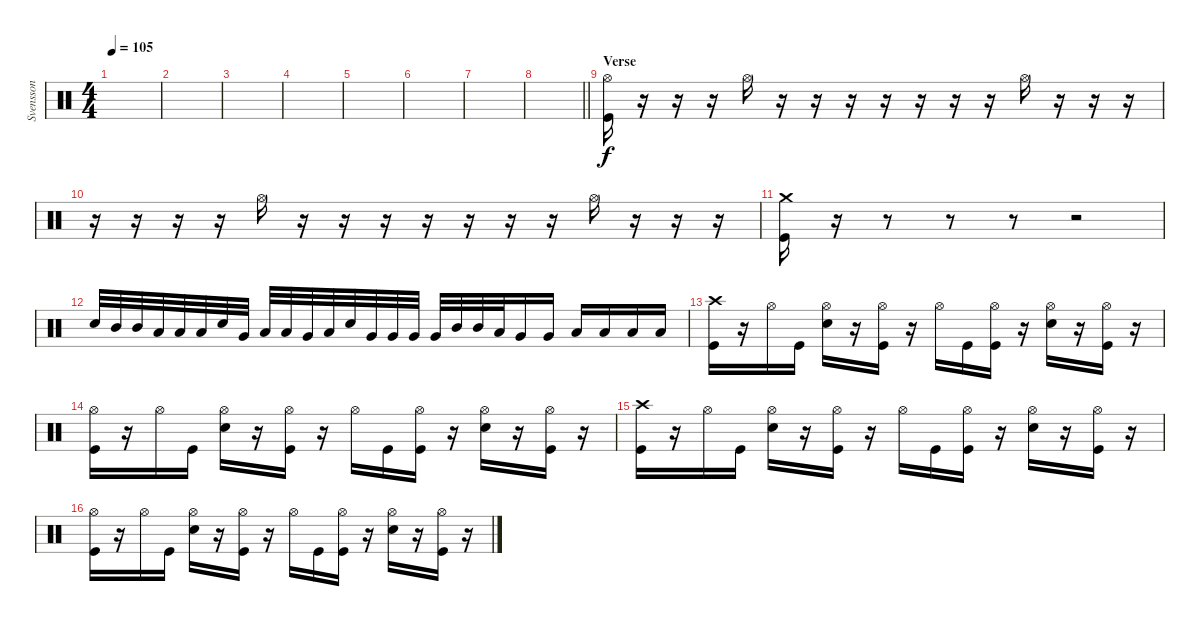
\track ("Svensson" "Svensson") {instrument percussion}
\staff {score}
\articulation defaults
\ts (4 4)
\tempo 105
\clef neutral
\ks c
|
|
|
|
|
|
|
\barLineRight lightlight
|
\section ("" "Verse")
("Hi-Hat (open)" "Kick (hit)").16 r.16 r.16 r.16 "Hi-Hat (open)".16 r.16 r.16 r.16 r.16 r.16 r.16 r.16 "Hi-Hat (open)".16 r.16 r.16 r.16 |
r.16 r.16 r.16 r.16 "Hi-Hat (open)".16 r.16 r.16 r.16 r.16 r.16 r.16 r.16 "Hi-Hat (open)".16 r.16 r.16 r.16 |
("Crash medium (hit)" "Kick (hit)").16 r.16 r.8 r.8 r.8 r.2 |
"Snare (hit) 2".32 "Mid Tom (hit)".32 "Mid Tom (hit)".32 "Low Tom (hit)".32 "Low Tom (hit)".32 "Low Tom (hit)".32 "Snare (hit) 2".32 "Very Low Tom (hit)".32 "Low Tom (hit)".32 "Low Tom (hit)".32 "Very Low Tom (hit)".32 "Low Floor Tom (hit)".32 "Snare (hit) 2".32 "Very Low Tom (hit)".32 "Very Low Tom (hit)".32 "Very Low Tom (hit)".32 "Very Low Tom (hit)".32 "Mid Tom (hit)".32 "Mid Tom (hit)".32 "Low Tom (hit)".32 "Very Low Tom (hit)".16 "Very Low Tom (hit)".16 "Low Floor Tom (hit)".16 "Low Floor Tom (hit)".16 "Low Floor Tom (hit)".16 "Low Floor Tom (hit)".16 |
("Crash high (hit)" "Kick (hit)").16 r.16 "Hi-Hat (open)".16 "Kick (hit)".16 ("Hi-Hat (open)" "Snare (hit) 2").16 r.16 ("Hi-Hat (open)" "Kick (hit)").16 r.16 "Hi-Hat (open)".16 "Kick (hit)".16 ("Hi-Hat (open)" "Kick (hit)").16 r.16 ("Hi-Hat (open)" "Snare (hit) 2").16 r.16 ("Hi-Hat (open)" "Kick (hit)").16 r.16 |
("Hi-Hat (open)" "Kick (hit)").16 r.16 "Hi-Hat (open)".16 "Kick (hit)".16 ("Hi-Hat (open)" "Snare (hit) 2").16 r.16 ("Hi-Hat (open)" "Kick (hit)").16 r.16 "Hi-Hat (open)".16 "Kick (hit)".16 ("Hi-Hat (open)" "Kick (hit)").16 r.16 ("Hi-Hat (open)" "Snare (hit) 2").16 r.16 ("Hi-Hat (open)" "Kick (hit)").16 r.16 |
("Crash high (hit)" "Kick (hit)").16 r.16 "Hi-Hat (open)".16 "Kick (hit)".16 ("Hi-Hat (open)" "Snare (hit) 2").16 r.16 ("Hi-Hat (open)" "Kick (hit)").16 r.16 "Hi-Hat (open)".16 "Kick (hit)".16 ("Hi-Hat (open)" "Kick (hit)").16 r.16 ("Hi-Hat (open)" "Snare (hit) 2").16 r.16 ("Hi-Hat (open)" "Kick (hit)").16 r.16 |
("Hi-Hat (open)" "Kick (hit)").16 r.16 "Hi-Hat (open)".16 "Kick (hit)".16 ("Hi-Hat (open)" "Snare (hit) 2").16 r.16 ("Hi-Hat (open)" "Kick (hit)").16 r.16 "Hi-Hat (open)".16 "Kick (hit)".16 ("Hi-Hat (open)" "Kick (hit)").16 r.16 ("Hi-Hat (open)" "Snare (hit) 2").16 r.16 ("Hi-Hat (open)" "Kick (hit)").16 r.16
